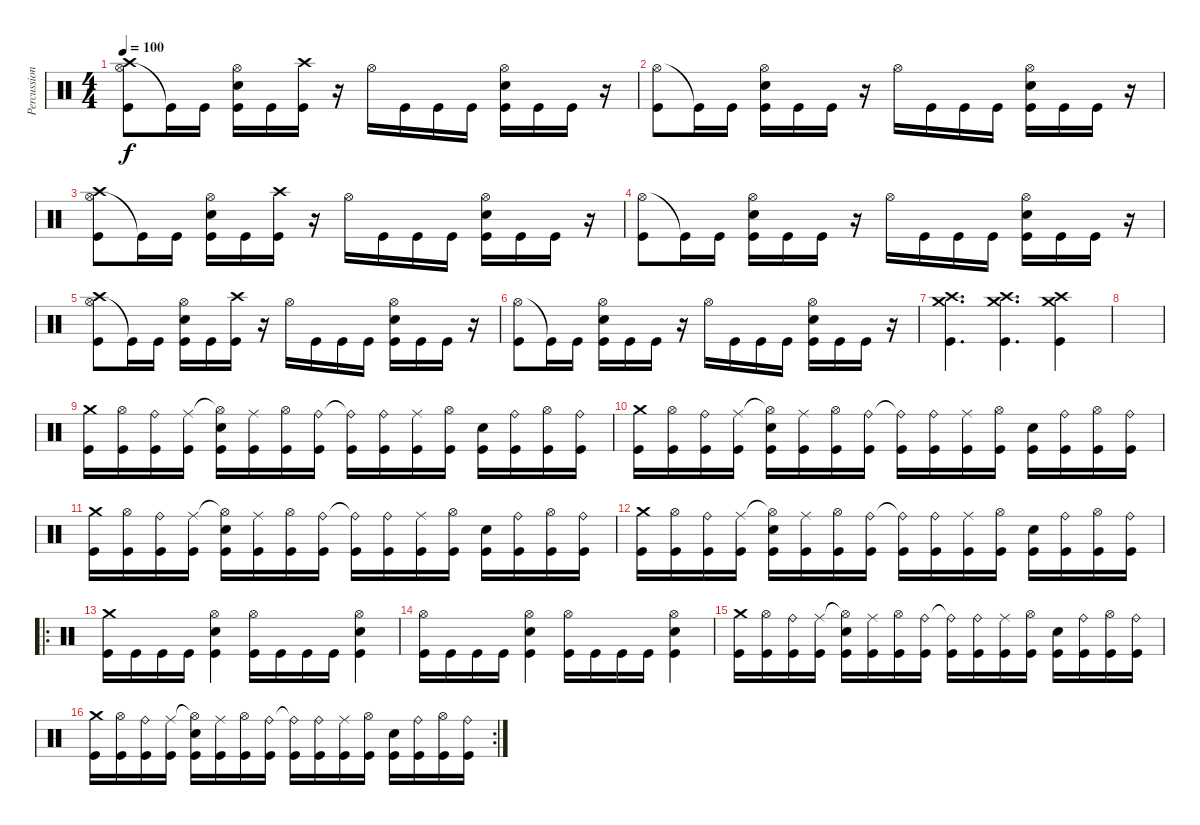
\track ("Percussion" "Percussion") {instrument percussion}
\staff {score}
\articulation defaults
\ts (4 4)
\tempo 100
\clef neutral
\ks c
("Hi-Hat (open)" "Crash high (hit)" "Kick (hit)").8{dy f} "Kick (hit)"{t}.16 "Kick (hit)".16 ("Hi-Hat (open)" "Snare (hit) 2" "Kick (hit)").16 "Kick (hit)".16 ("Crash high (hit)" "Kick (hit)").16 r.16 "Hi-Hat (open)".16 "Kick (hit)".16 "Kick (hit)".16 "Kick (hit)".16 ("Hi-Hat (open)" "Snare (hit) 2" "Kick (hit)").16 "Kick (hit)".16 "Kick (hit)".16 r.16 |
("Hi-Hat (open)" "Kick (hit)").8 "Kick (hit)"{t}.16 "Kick (hit)".16 ("Hi-Hat (open)" "Snare (hit) 2" "Kick (hit)").16 "Kick (hit)".16 "Kick (hit)".16 r.16 "Hi-Hat (open)".16 "Kick (hit)".16 "Kick (hit)".16 "Kick (hit)".16 ("Hi-Hat (open)" "Snare (hit) 2" "Kick (hit)").16 "Kick (hit)".16 "Kick (hit)".16 r.16 |
("Hi-Hat (open)" "Crash high (hit)" "Kick (hit)").8 "Kick (hit)"{t}.16 "Kick (hit)".16 ("Hi-Hat (open)" "Snare (hit) 2" "Kick (hit)").16 "Kick (hit)".16 ("Crash high (hit)" "Kick (hit)").16 r.16 "Hi-Hat (open)".16 "Kick (hit)".16 "Kick (hit)".16 "Kick (hit)".16 ("Hi-Hat (open)" "Snare (hit) 2" "Kick (hit)").16 "Kick (hit)".16 "Kick (hit)".16 r.16 |
("Hi-Hat (open)" "Kick (hit)").8 "Kick (hit)"{t}.16 "Kick (hit)".16 ("Hi-Hat (open)" "Snare (hit) 2" "Kick (hit)").16 "Kick (hit)".16 "Kick (hit)".16 r.16 "Hi-Hat (open)".16 "Kick (hit)".16 "Kick (hit)".16 "Kick (hit)".16 ("Hi-Hat (open)" "Snare (hit) 2" "Kick (hit)").16 "Kick (hit)".16 "Kick (hit)".16 r.16 |
("Hi-Hat (open)" "Crash high (hit)" "Kick (hit)").8 "Kick (hit)"{t}.16 "Kick (hit)".16 ("Hi-Hat (open)" "Snare (hit) 2" "Kick (hit)").16 "Kick (hit)".16 ("Crash high (hit)" "Kick (hit)").16 r.16 "Hi-Hat (open)".16 "Kick (hit)".16 "Kick (hit)".16 "Kick (hit)".16 ("Hi-Hat (open)" "Snare (hit) 2" "Kick (hit)").16 "Kick (hit)".16 "Kick (hit)".16 r.16 |
("Hi-Hat (open)" "Kick (hit)").8 "Kick (hit)"{t}.16 "Kick (hit)".16 ("Hi-Hat (open)" "Snare (hit) 2" "Kick (hit)").16 "Kick (hit)".16 "Kick (hit)".16 r.16 "Hi-Hat (open)".16 "Kick (hit)".16 "Kick (hit)".16 "Kick (hit)".16 ("Hi-Hat (open)" "Snare (hit) 2" "Kick (hit)").16 "Kick (hit)".16 "Kick (hit)".16 r.16 |
("Crash medium (hit)" "Crash high (hit)" "Kick (hit)").4{d} ("Crash medium (hit)" "Crash high (hit)" "Kick (hit)").4{d} ("Crash medium (hit)" "Crash high (hit)" "Kick (hit)").4 |
|
("Crash medium (hit)" "Kick (hit)").16 ("Hi-Hat (open)" "Kick (hit)").16 ("Ride (bell)" "Kick (hit)").16 ("Ride (middle)" "Kick (hit)").16 ("Hi-Hat (open)"{t} "Snare (hit) 2" "Kick (hit)").16 ("Ride (middle)" "Kick (hit)").16 ("Hi-Hat (open)" "Kick (hit)").16 ("Ride (bell)" "Kick (hit)").16 ("Ride (bell)"{t} "Kick (hit)").16 ("Ride (bell)" "Kick (hit)").16 ("Ride (middle)" "Kick (hit)").16 ("Hi-Hat (open)" "Kick (hit)").16 ("Snare (hit) 2" "Kick (hit)").16 ("Ride (bell)" "Kick (hit)").16 ("Hi-Hat (open)" "Kick (hit)").16 ("Ride (bell)" "Kick (hit)").16 |
("Crash medium (hit)" "Kick (hit)").16 ("Hi-Hat (open)" "Kick (hit)").16 ("Ride (bell)" "Kick (hit)").16 ("Ride (middle)" "Kick (hit)").16 ("Hi-Hat (open)"{t} "Snare (hit) 2" "Kick (hit)").16 ("Ride (middle)" "Kick (hit)").16 ("Hi-Hat (open)" "Kick (hit)").16 ("Ride (bell)" "Kick (hit)").16 ("Ride (bell)"{t} "Kick (hit)").16 ("Ride (bell)" "Kick (hit)").16 ("Ride (middle)" "Kick (hit)").16 ("Hi-Hat (open)" "Kick (hit)").16 ("Snare (hit) 2" "Kick (hit)").16 ("Ride (bell)" "Kick (hit)").16 ("Hi-Hat (open)" "Kick (hit)").16 ("Ride (bell)" "Kick (hit)").16 |
("Crash medium (hit)" "Kick (hit)").16 ("Hi-Hat (open)" "Kick (hit)").16 ("Ride (bell)" "Kick (hit)").16 ("Ride (middle)" "Kick (hit)").16 ("Hi-Hat (open)"{t} "Snare (hit) 2" "Kick (hit)").16 ("Ride (middle)" "Kick (hit)").16 ("Hi-Hat (open)" "Kick (hit)").16 ("Ride (bell)" "Kick (hit)").16 ("Ride (bell)"{t} "Kick (hit)").16 ("Ride (bell)" "Kick (hit)").16 ("Ride (middle)" "Kick (hit)").16 ("Hi-Hat (open)" "Kick (hit)").16 ("Snare (hit) 2" "Kick (hit)").16 ("Ride (bell)" "Kick (hit)").16 ("Hi-Hat (open)" "Kick (hit)").16 ("Ride (bell)" "Kick (hit)").16 |
("Crash medium (hit)" "Kick (hit)").16 ("Hi-Hat (open)" "Kick (hit)").16 ("Ride (bell)" "Kick (hit)").16 ("Ride (middle)" "Kick (hit)").16 ("Hi-Hat (open)"{t} "Snare (hit) 2" "Kick (hit)").16 ("Ride (middle)" "Kick (hit)").16 ("Hi-Hat (open)" "Kick (hit)").16 ("Ride (bell)" "Kick (hit)").16 ("Ride (bell)"{t} "Kick (hit)").16 ("Ride (bell)" "Kick (hit)").16 ("Ride (middle)" "Kick (hit)").16 ("Hi-Hat (open)" "Kick (hit)").16 ("Snare (hit) 2" "Kick (hit)").16 ("Ride (bell)" "Kick (hit)").16 ("Hi-Hat (open)" "Kick (hit)").16 ("Ride (bell)" "Kick (hit)").16 |
\ro
("Crash medium (hit)" "Kick (hit)").16 "Kick (hit)".16 "Kick (hit)".16 "Kick (hit)".16 ("Hi-Hat (open)" "Snare (hit) 2" "Kick (hit)").4 ("Hi-Hat (open)" "Kick (hit)").16 "Kick (hit)".16 "Kick (hit)".16 "Kick (hit)".16 ("Hi-Hat (open)" "Snare (hit) 2" "Kick (hit)").4 |
("Hi-Hat (open)" "Kick (hit)").16 "Kick (hit)".16 "Kick (hit)".16 "Kick (hit)".16 ("Hi-Hat (open)" "Snare (hit) 2" "Kick (hit)").4 ("Hi-Hat (open)" "Kick (hit)").16 "Kick (hit)".16 "Kick (hit)".16 "Kick (hit)".16 ("Hi-Hat (open)" "Snare (hit) 2" "Kick (hit)").4 |
("Crash medium (hit)" "Kick (hit)").16 ("Hi-Hat (open)" "Kick (hit)").16 ("Ride (bell)" "Kick (hit)").16 ("Ride (middle)" "Kick (hit)").16 ("Hi-Hat (open)"{t} "Snare (hit) 2" "Kick (hit)").16 ("Ride (middle)" "Kick (hit)").16 ("Hi-Hat (open)" "Kick (hit)").16 ("Ride (bell)" "Kick (hit)").16 ("Ride (bell)"{t} "Kick (hit)").16 ("Ride (bell)" "Kick (hit)").16 ("Ride (middle)" "Kick (hit)").16 ("Hi-Hat (open)" "Kick (hit)").16 ("Snare (hit) 2" "Kick (hit)").16 ("Ride (bell)" "Kick (hit)").16 ("Hi-Hat (open)" "Kick (hit)").16 ("Ride (bell)" "Kick (hit)").16 |
\rc 2
("Crash medium (hit)" "Kick (hit)").16 ("Hi-Hat (open)" "Kick (hit)").16 ("Ride (bell)" "Kick (hit)").16 ("Ride (middle)" "Kick (hit)").16 ("Hi-Hat (open)"{t} "Snare (hit) 2" "Kick (hit)").16 ("Ride (middle)" "Kick (hit)").16 ("Hi-Hat (open)" "Kick (hit)").16 ("Ride (bell)" "Kick (hit)").16 ("Ride (bell)"{t} "Kick (hit)").16 ("Ride (bell)" "Kick (hit)").16 ("Ride (middle)" "Kick (hit)").16 ("Hi-Hat (open)" "Kick (hit)").16 ("Snare (hit) 2" "Kick (hit)").16 ("Ride (bell)" "Kick (hit)").16 ("Hi-Hat (open)" "Kick (hit)").16 ("Ride (bell)" "Kick (hit)").16
